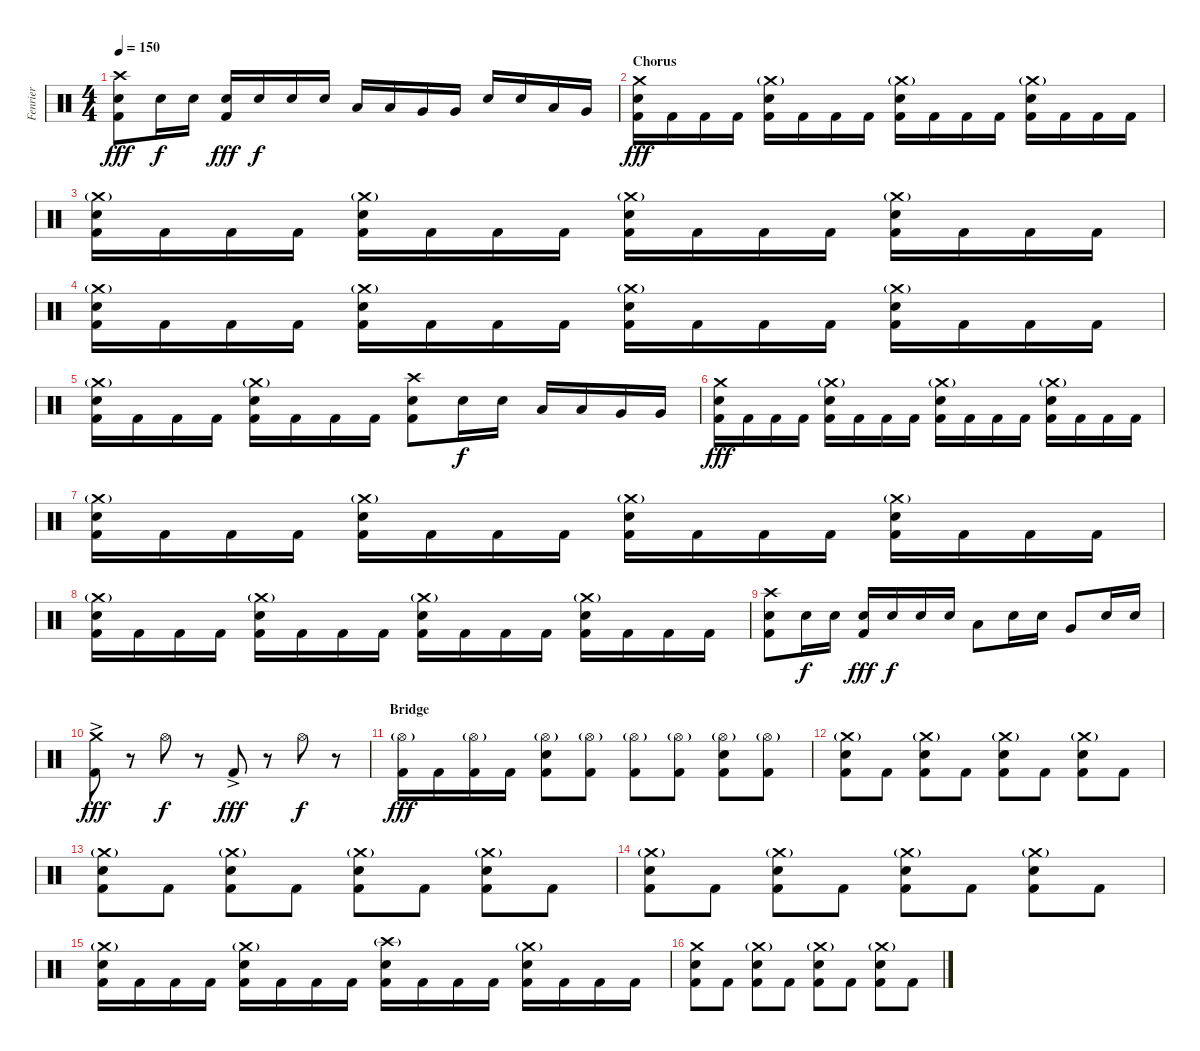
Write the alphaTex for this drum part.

\track ("Fenrier" "Fenrier") {instrument percussion}
\staff {score}
\articulation defaults
\ts (4 4)
\tempo 150
\clef neutral
\ks c
("Crash high (hit)" "Electric Snare (hit)" "Kick (hit) 2").8{dy fff} "Electric Snare (hit)".16{dy f} "Electric Snare (hit)".16 ("Electric Snare (hit)" "Kick (hit) 2").16{dy fff} "Electric Snare (hit)".16{dy f} "Electric Snare (hit)".16 "Electric Snare (hit)".16 "Low Tom (hit)".16 "Low Tom (hit)".16 "Very Low Tom (hit)".16 "Very Low Tom (hit)".16 "Electric Snare (hit)".16 "Electric Snare (hit)".16 "Low Tom (hit)".16 "Very Low Tom (hit)".16 |
\section ("" "Chorus")
("Crash medium (hit)" "Electric Snare (hit)" "Kick (hit) 2").16{dy fff} "Kick (hit) 2".16 "Kick (hit) 2".16 "Kick (hit) 2".16 ("Crash medium (hit)"{g} "Electric Snare (hit)" "Kick (hit) 2").16 "Kick (hit) 2".16 "Kick (hit) 2".16 "Kick (hit) 2".16 ("Crash medium (hit)"{g} "Electric Snare (hit)" "Kick (hit) 2").16 "Kick (hit) 2".16 "Kick (hit) 2".16 "Kick (hit) 2".16 ("Crash medium (hit)"{g} "Electric Snare (hit)" "Kick (hit) 2").16 "Kick (hit) 2".16 "Kick (hit) 2".16 "Kick (hit) 2".16 |
("Crash medium (hit)"{g} "Electric Snare (hit)" "Kick (hit) 2").16 "Kick (hit) 2".16 "Kick (hit) 2".16 "Kick (hit) 2".16 ("Crash medium (hit)"{g} "Electric Snare (hit)" "Kick (hit) 2").16 "Kick (hit) 2".16 "Kick (hit) 2".16 "Kick (hit) 2".16 ("Crash medium (hit)"{g} "Electric Snare (hit)" "Kick (hit) 2").16 "Kick (hit) 2".16 "Kick (hit) 2".16 "Kick (hit) 2".16 ("Crash medium (hit)"{g} "Electric Snare (hit)" "Kick (hit) 2").16 "Kick (hit) 2".16 "Kick (hit) 2".16 "Kick (hit) 2".16 |
("Crash medium (hit)"{g} "Electric Snare (hit)" "Kick (hit) 2").16 "Kick (hit) 2".16 "Kick (hit) 2".16 "Kick (hit) 2".16 ("Crash medium (hit)"{g} "Electric Snare (hit)" "Kick (hit) 2").16 "Kick (hit) 2".16 "Kick (hit) 2".16 "Kick (hit) 2".16 ("Crash medium (hit)"{g} "Electric Snare (hit)" "Kick (hit) 2").16 "Kick (hit) 2".16 "Kick (hit) 2".16 "Kick (hit) 2".16 ("Crash medium (hit)"{g} "Electric Snare (hit)" "Kick (hit) 2").16 "Kick (hit) 2".16 "Kick (hit) 2".16 "Kick (hit) 2".16 |
("Crash medium (hit)"{g} "Electric Snare (hit)" "Kick (hit) 2").16 "Kick (hit) 2".16 "Kick (hit) 2".16 "Kick (hit) 2".16 ("Crash medium (hit)"{g} "Electric Snare (hit)" "Kick (hit) 2").16 "Kick (hit) 2".16 "Kick (hit) 2".16 "Kick (hit) 2".16 ("Crash high (hit)" "Electric Snare (hit)" "Kick (hit) 2").8 "Electric Snare (hit)".16{dy f} "Electric Snare (hit)".16 "Low Tom (hit)".16 "Low Tom (hit)".16 "Very Low Tom (hit)".16 "Very Low Tom (hit)".16 |
("Crash medium (hit)" "Electric Snare (hit)" "Kick (hit) 2").16{dy fff} "Kick (hit) 2".16 "Kick (hit) 2".16 "Kick (hit) 2".16 ("Crash medium (hit)"{g} "Electric Snare (hit)" "Kick (hit) 2").16 "Kick (hit) 2".16 "Kick (hit) 2".16 "Kick (hit) 2".16 ("Crash medium (hit)"{g} "Electric Snare (hit)" "Kick (hit) 2").16 "Kick (hit) 2".16 "Kick (hit) 2".16 "Kick (hit) 2".16 ("Crash medium (hit)"{g} "Electric Snare (hit)" "Kick (hit) 2").16 "Kick (hit) 2".16 "Kick (hit) 2".16 "Kick (hit) 2".16 |
("Crash medium (hit)"{g} "Electric Snare (hit)" "Kick (hit) 2").16 "Kick (hit) 2".16 "Kick (hit) 2".16 "Kick (hit) 2".16 ("Crash medium (hit)"{g} "Electric Snare (hit)" "Kick (hit) 2").16 "Kick (hit) 2".16 "Kick (hit) 2".16 "Kick (hit) 2".16 ("Crash medium (hit)"{g} "Electric Snare (hit)" "Kick (hit) 2").16 "Kick (hit) 2".16 "Kick (hit) 2".16 "Kick (hit) 2".16 ("Crash medium (hit)"{g} "Electric Snare (hit)" "Kick (hit) 2").16 "Kick (hit) 2".16 "Kick (hit) 2".16 "Kick (hit) 2".16 |
("Crash medium (hit)"{g} "Electric Snare (hit)" "Kick (hit) 2").16 "Kick (hit) 2".16 "Kick (hit) 2".16 "Kick (hit) 2".16 ("Crash medium (hit)"{g} "Electric Snare (hit)" "Kick (hit) 2").16 "Kick (hit) 2".16 "Kick (hit) 2".16 "Kick (hit) 2".16 ("Crash medium (hit)"{g} "Electric Snare (hit)" "Kick (hit) 2").16 "Kick (hit) 2".16 "Kick (hit) 2".16 "Kick (hit) 2".16 ("Crash medium (hit)"{g} "Electric Snare (hit)" "Kick (hit) 2").16 "Kick (hit) 2".16 "Kick (hit) 2".16 "Kick (hit) 2".16 |
("Crash high (hit)" "Electric Snare (hit)" "Kick (hit) 2").8 "Electric Snare (hit)".16{dy f} "Electric Snare (hit)".16 ("Electric Snare (hit)" "Kick (hit) 2").16{dy fff} "Electric Snare (hit)".16{dy f} "Electric Snare (hit)".16 "Electric Snare (hit)".16 "Low Tom (hit)".8 "Electric Snare (hit)".16 "Electric Snare (hit)".16 "Very Low Tom (hit)".8 "Electric Snare (hit)".16 "Electric Snare (hit)".16 |
("Crash medium (hit)" "Kick (hit) 2"{ac}).8{dy fff} r.8 "Hi-Hat (open)".8{dy f} r.8 "Kick (hit) 2"{ac}.8{dy fff} r.8 "Hi-Hat (open)".8{dy f} r.8 |
\section ("" "Bridge")
("Hi-Hat (open)"{g} "Kick (hit) 2").16{dy fff} "Kick (hit) 2".16 ("Hi-Hat (open)"{g} "Kick (hit) 2").16 "Kick (hit) 2".16 ("Hi-Hat (open)"{g} "Electric Snare (hit)" "Kick (hit) 2").8 ("Hi-Hat (open)"{g} "Kick (hit) 2").8 ("Hi-Hat (open)"{g} "Kick (hit) 2").8 ("Hi-Hat (open)"{g} "Kick (hit) 2").8 ("Hi-Hat (open)"{g} "Electric Snare (hit)" "Kick (hit) 2").8 ("Hi-Hat (open)"{g} "Kick (hit) 2").8 |
("Crash medium (hit)"{g} "Electric Snare (hit)" "Kick (hit) 2").8 "Kick (hit) 2".8 ("Crash medium (hit)"{g} "Electric Snare (hit)" "Kick (hit) 2").8 "Kick (hit) 2".8 ("Crash medium (hit)"{g} "Electric Snare (hit)" "Kick (hit) 2").8 "Kick (hit) 2".8 ("Crash medium (hit)"{g} "Electric Snare (hit)" "Kick (hit) 2").8 "Kick (hit) 2".8 |
("Crash medium (hit)"{g} "Electric Snare (hit)" "Kick (hit) 2").8 "Kick (hit) 2".8 ("Crash medium (hit)"{g} "Electric Snare (hit)" "Kick (hit) 2").8 "Kick (hit) 2".8 ("Crash medium (hit)"{g} "Electric Snare (hit)" "Kick (hit) 2").8 "Kick (hit) 2".8 ("Crash medium (hit)"{g} "Electric Snare (hit)" "Kick (hit) 2").8 "Kick (hit) 2".8 |
("Crash medium (hit)"{g} "Electric Snare (hit)" "Kick (hit) 2").8 "Kick (hit) 2".8 ("Crash medium (hit)"{g} "Electric Snare (hit)" "Kick (hit) 2").8 "Kick (hit) 2".8 ("Crash medium (hit)"{g} "Electric Snare (hit)" "Kick (hit) 2").8 "Kick (hit) 2".8 ("Crash medium (hit)"{g} "Electric Snare (hit)" "Kick (hit) 2").8 "Kick (hit) 2".8 |
("Crash medium (hit)"{g} "Electric Snare (hit)" "Kick (hit) 2").16 "Kick (hit) 2".16 "Kick (hit) 2".16 "Kick (hit) 2".16 ("Crash medium (hit)"{g} "Electric Snare (hit)" "Kick (hit) 2").16 "Kick (hit) 2".16 "Kick (hit) 2".16 "Kick (hit) 2".16 ("Crash high (hit)"{g} "Electric Snare (hit)" "Kick (hit) 2").16 "Kick (hit) 2".16 "Kick (hit) 2".16 "Kick (hit) 2".16 ("Crash medium (hit)"{g} "Electric Snare (hit)" "Kick (hit) 2").16 "Kick (hit) 2".16 "Kick (hit) 2".16 "Kick (hit) 2".16 |
("Crash medium (hit)" "Electric Snare (hit)" "Kick (hit) 2").8 "Kick (hit) 2".8 ("Crash medium (hit)"{g} "Electric Snare (hit)" "Kick (hit) 2").8 "Kick (hit) 2".8 ("Crash medium (hit)"{g} "Electric Snare (hit)" "Kick (hit) 2").8 "Kick (hit) 2".8 ("Crash medium (hit)"{g} "Electric Snare (hit)" "Kick (hit) 2").8 "Kick (hit) 2".8
